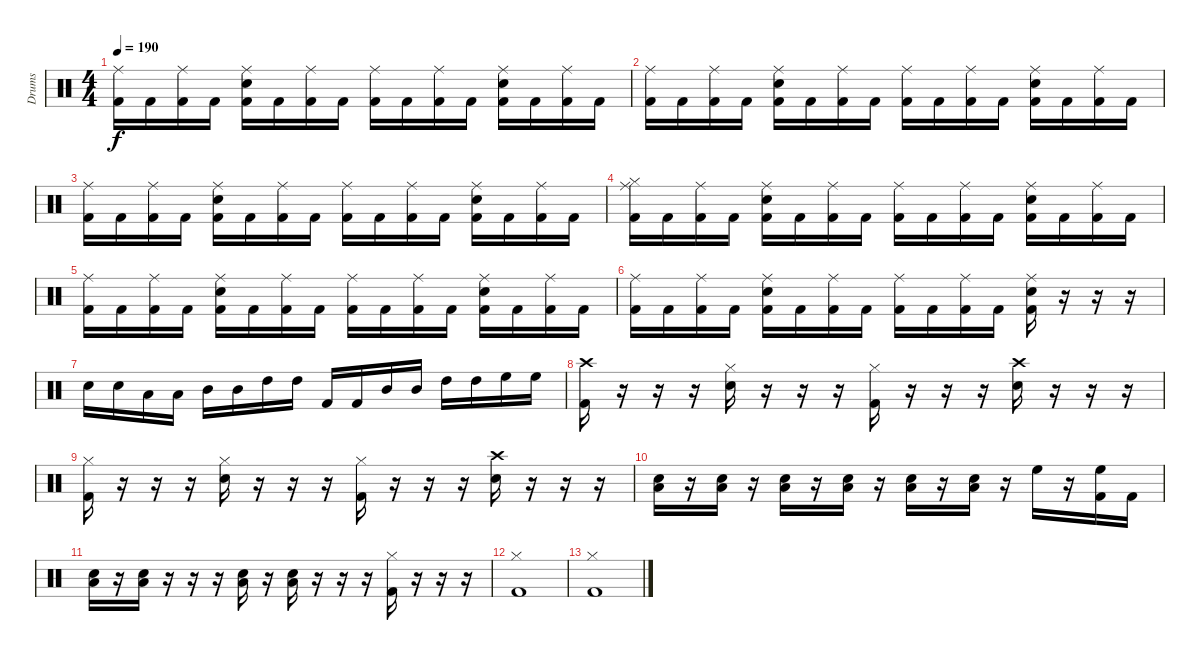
\track ("Drums" "Drums") {instrument percussion}
\staff {score}
\articulation defaults
\ts (4 4)
\tempo 190
\clef neutral
\ks c
("Ride (middle)" "Kick (hit) 2").16{dy f} "Kick (hit) 2".16 ("Ride (middle)" "Kick (hit) 2").16 "Kick (hit) 2".16 ("Ride (middle)" "Electric Snare (hit)" "Kick (hit) 2").16 "Kick (hit) 2".16 ("Ride (middle)" "Kick (hit) 2").16 "Kick (hit) 2".16 ("Ride (middle)" "Kick (hit) 2").16 "Kick (hit) 2".16 ("Ride (middle)" "Kick (hit) 2").16 "Kick (hit) 2".16 ("Ride (middle)" "Electric Snare (hit)" "Kick (hit) 2").16 "Kick (hit) 2".16 ("Ride (middle)" "Kick (hit) 2").16 "Kick (hit) 2".16 |
("Ride (middle)" "Kick (hit) 2").16 "Kick (hit) 2".16 ("Ride (middle)" "Kick (hit) 2").16 "Kick (hit) 2".16 ("Ride (middle)" "Electric Snare (hit)" "Kick (hit) 2").16 "Kick (hit) 2".16 ("Ride (middle)" "Kick (hit) 2").16 "Kick (hit) 2".16 ("Ride (middle)" "Kick (hit) 2").16 "Kick (hit) 2".16 ("Ride (middle)" "Kick (hit) 2").16 "Kick (hit) 2".16 ("Ride (middle)" "Electric Snare (hit)" "Kick (hit) 2").16 "Kick (hit) 2".16 ("Ride (middle)" "Kick (hit) 2").16 "Kick (hit) 2".16 |
("Ride (middle)" "Kick (hit) 2").16 "Kick (hit) 2".16 ("Ride (middle)" "Kick (hit) 2").16 "Kick (hit) 2".16 ("Ride (middle)" "Electric Snare (hit)" "Kick (hit) 2").16 "Kick (hit) 2".16 ("Ride (middle)" "Kick (hit) 2").16 "Kick (hit) 2".16 ("Ride (middle)" "Kick (hit) 2").16 "Kick (hit) 2".16 ("Ride (middle)" "Kick (hit) 2").16 "Kick (hit) 2".16 ("Ride (middle)" "Electric Snare (hit)" "Kick (hit) 2").16 "Kick (hit) 2".16 ("Ride (middle)" "Kick (hit) 2").16 "Kick (hit) 2".16 |
("Hi-Hat (closed)" "Ride (middle)" "Kick (hit) 2").16 "Kick (hit) 2".16 ("Ride (middle)" "Kick (hit) 2").16 "Kick (hit) 2".16 ("Ride (middle)" "Electric Snare (hit)" "Kick (hit) 2").16 "Kick (hit) 2".16 ("Ride (middle)" "Kick (hit) 2").16 "Kick (hit) 2".16 ("Ride (middle)" "Kick (hit) 2").16 "Kick (hit) 2".16 ("Ride (middle)" "Kick (hit) 2").16 "Kick (hit) 2".16 ("Ride (middle)" "Electric Snare (hit)" "Kick (hit) 2").16 "Kick (hit) 2".16 ("Ride (middle)" "Kick (hit) 2").16 "Kick (hit) 2".16 |
("Ride (middle)" "Kick (hit) 2").16 "Kick (hit) 2".16 ("Ride (middle)" "Kick (hit) 2").16 "Kick (hit) 2".16 ("Ride (middle)" "Electric Snare (hit)" "Kick (hit) 2").16 "Kick (hit) 2".16 ("Ride (middle)" "Kick (hit) 2").16 "Kick (hit) 2".16 ("Ride (middle)" "Kick (hit) 2").16 "Kick (hit) 2".16 ("Ride (middle)" "Kick (hit) 2").16 "Kick (hit) 2".16 ("Ride (middle)" "Electric Snare (hit)" "Kick (hit) 2").16 "Kick (hit) 2".16 ("Ride (middle)" "Kick (hit) 2").16 "Kick (hit) 2".16 |
("Ride (middle)" "Kick (hit) 2").16 "Kick (hit) 2".16 ("Ride (middle)" "Kick (hit) 2").16 "Kick (hit) 2".16 ("Ride (middle)" "Electric Snare (hit)" "Kick (hit) 2").16 "Kick (hit) 2".16 ("Ride (middle)" "Kick (hit) 2").16 "Kick (hit) 2".16 ("Ride (middle)" "Kick (hit) 2").16 "Kick (hit) 2".16 ("Ride (middle)" "Kick (hit) 2").16 "Kick (hit) 2".16 ("Ride (middle)" "Electric Snare (hit)" "Kick (hit) 2").16 r.16 r.16 r.16 |
"Electric Snare (hit)".16 "Electric Snare (hit)".16 "Low Tom (hit)".16 "Low Tom (hit)".16 "Mid Tom (hit)".16 "Mid Tom (hit)".16 "High Tom (hit)".16 "High Tom (hit)".16 "Kick (hit) 2".16 "Kick (hit) 2".16 "Mid Tom (hit)".16 "Mid Tom (hit)".16 "High Tom (hit)".16 "High Tom (hit)".16 "High Floor Tom (hit)".16 "High Floor Tom (hit)".16 |
("Crash high (hit)" "Kick (hit) 2").16 r.16 r.16 r.16 ("Hi-Hat (closed)" "Electric Snare (hit)").16 r.16 r.16 r.16 ("Hi-Hat (closed)" "Kick (hit) 2").16 r.16 r.16 r.16 ("Crash high (hit)" "Electric Snare (hit)").16 r.16 r.16 r.16 |
("Hi-Hat (closed)" "Kick (hit) 2").16 r.16 r.16 r.16 ("Hi-Hat (closed)" "Electric Snare (hit)").16 r.16 r.16 r.16 ("Hi-Hat (closed)" "Kick (hit) 2").16 r.16 r.16 r.16 ("Crash high (hit)" "Electric Snare (hit)").16 r.16 r.16 r.16 |
("Low Floor Tom (hit)" "Electric Snare (hit)").16 r.16 ("Low Floor Tom (hit)" "Electric Snare (hit)").16 r.16 ("Low Floor Tom (hit)" "Electric Snare (hit)").16 r.16 ("Low Floor Tom (hit)" "Electric Snare (hit)").16 r.16 ("Low Floor Tom (hit)" "Electric Snare (hit)").16 r.16 ("Low Floor Tom (hit)" "Electric Snare (hit)").16 r.16 "High Floor Tom (hit)".16 r.16 ("High Floor Tom (hit)" "Kick (hit) 2").16 "Kick (hit) 2".16 |
("Low Floor Tom (hit)" "Electric Snare (hit)").16 r.16 ("Low Floor Tom (hit)" "Electric Snare (hit)").16 r.16 r.16 r.16 ("Low Floor Tom (hit)" "Electric Snare (hit)").16 r.16 ("Low Floor Tom (hit)" "Electric Snare (hit)").16 r.16 r.16 r.16 ("Hi-Hat (closed)" "Kick (hit) 2").16 r.16 r.16 r.16 |
("Hi-Hat (closed)" "Kick (hit) 2").1 |
("Hi-Hat (closed)" "Kick (hit) 2").1
